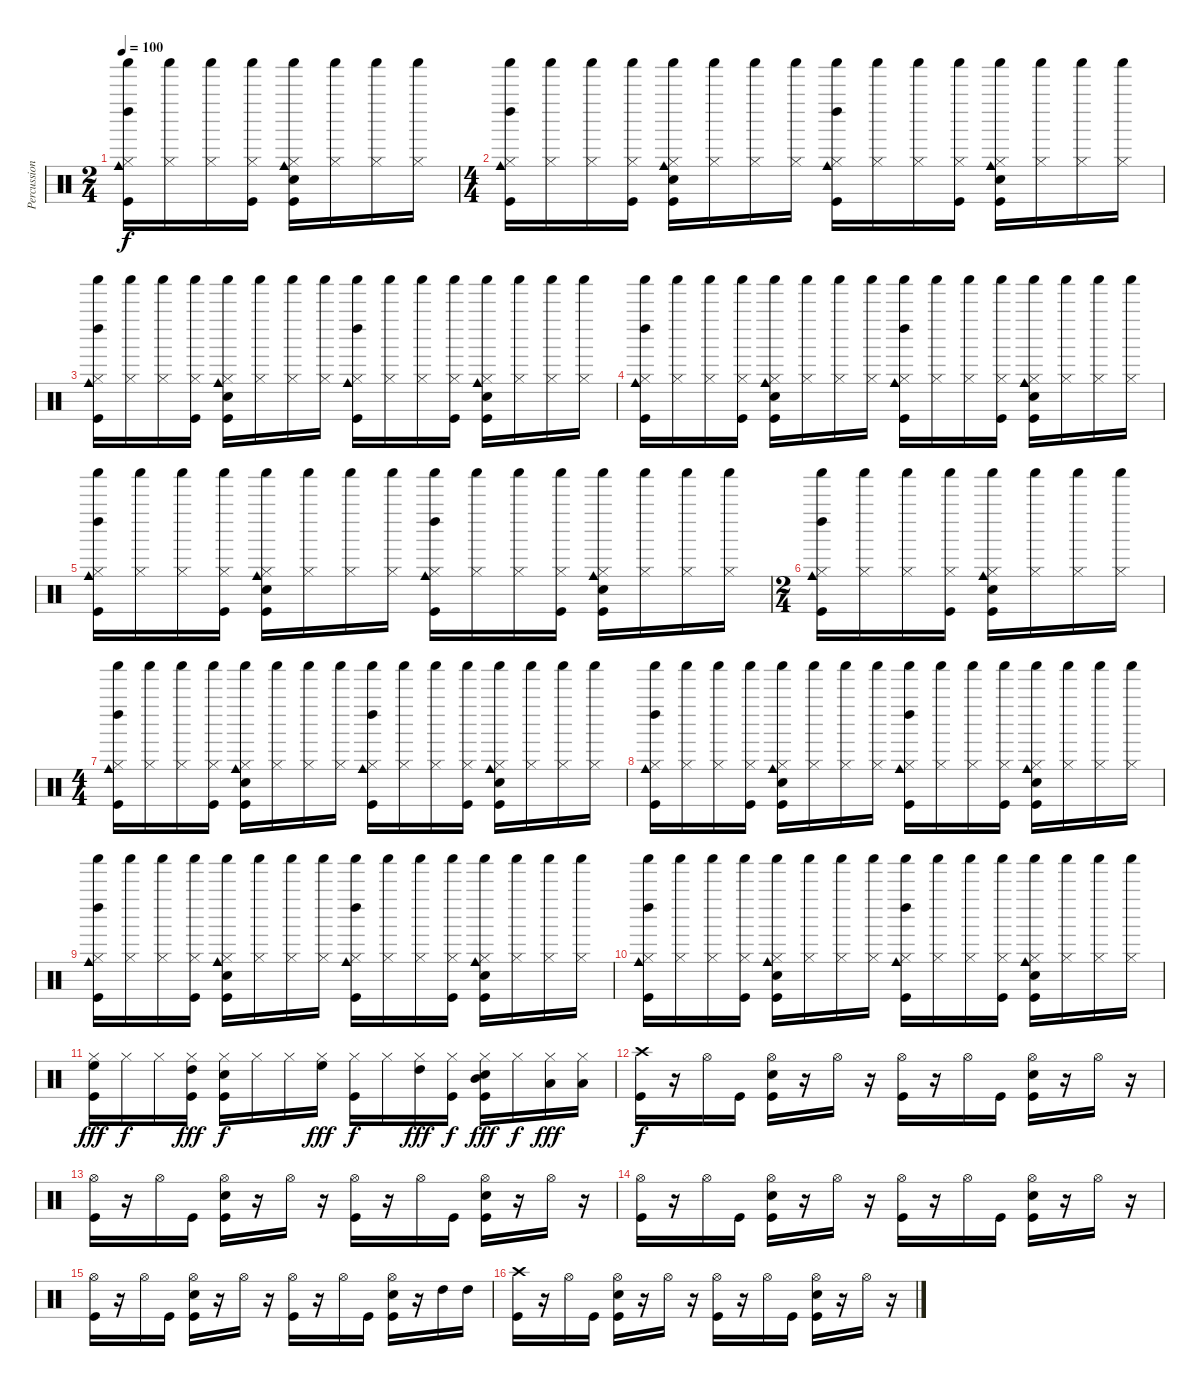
\track ("Percussions" "Percussion") {instrument percussion}
\staff {score}
\articulation defaults
\ts (2 4)
\tempo 100
\clef neutral
\ks c
("Hi-Hat (closed)" "Kick (hit)" "Left Maraca (hit)" "Cowbell medium (hit)" "Shaker (hit)").16{dy f} ("Hi-Hat (closed)" "Shaker (hit)").16 ("Hi-Hat (closed)" "Shaker (hit)").16 ("Hi-Hat (closed)" "Kick (hit)" "Shaker (hit)").16 ("Hi-Hat (closed)" "Electric Snare (hit)" "Kick (hit)" "Cowbell medium (hit)" "Shaker (hit)").16 ("Hi-Hat (closed)" "Shaker (hit)").16 ("Hi-Hat (closed)" "Shaker (hit)").16 ("Hi-Hat (closed)" "Shaker (hit)").16 |
\ts (4 4)
("Hi-Hat (closed)" "Kick (hit)" "Left Maraca (hit)" "Cowbell medium (hit)" "Shaker (hit)").16 ("Hi-Hat (closed)" "Shaker (hit)").16 ("Hi-Hat (closed)" "Shaker (hit)").16 ("Hi-Hat (closed)" "Kick (hit)" "Shaker (hit)").16 ("Hi-Hat (closed)" "Electric Snare (hit)" "Kick (hit)" "Cowbell medium (hit)" "Shaker (hit)").16 ("Hi-Hat (closed)" "Shaker (hit)").16 ("Hi-Hat (closed)" "Shaker (hit)").16 ("Hi-Hat (closed)" "Shaker (hit)").16 ("Hi-Hat (closed)" "Kick (hit)" "Left Maraca (hit)" "Cowbell medium (hit)" "Shaker (hit)").16 ("Hi-Hat (closed)" "Shaker (hit)").16 ("Hi-Hat (closed)" "Shaker (hit)").16 ("Hi-Hat (closed)" "Kick (hit)" "Shaker (hit)").16 ("Hi-Hat (closed)" "Electric Snare (hit)" "Kick (hit)" "Cowbell medium (hit)" "Shaker (hit)").16 ("Hi-Hat (closed)" "Shaker (hit)").16 ("Hi-Hat (closed)" "Shaker (hit)").16 ("Hi-Hat (closed)" "Shaker (hit)").16 |
("Hi-Hat (closed)" "Kick (hit)" "Left Maraca (hit)" "Cowbell medium (hit)" "Shaker (hit)").16 ("Hi-Hat (closed)" "Shaker (hit)").16 ("Hi-Hat (closed)" "Shaker (hit)").16 ("Hi-Hat (closed)" "Kick (hit)" "Shaker (hit)").16 ("Hi-Hat (closed)" "Electric Snare (hit)" "Kick (hit)" "Cowbell medium (hit)" "Shaker (hit)").16 ("Hi-Hat (closed)" "Shaker (hit)").16 ("Hi-Hat (closed)" "Shaker (hit)").16 ("Hi-Hat (closed)" "Shaker (hit)").16 ("Hi-Hat (closed)" "Kick (hit)" "Left Maraca (hit)" "Cowbell medium (hit)" "Shaker (hit)").16 ("Hi-Hat (closed)" "Shaker (hit)").16 ("Hi-Hat (closed)" "Shaker (hit)").16 ("Hi-Hat (closed)" "Kick (hit)" "Shaker (hit)").16 ("Hi-Hat (closed)" "Electric Snare (hit)" "Kick (hit)" "Cowbell medium (hit)" "Shaker (hit)").16 ("Hi-Hat (closed)" "Shaker (hit)").16 ("Hi-Hat (closed)" "Shaker (hit)").16 ("Hi-Hat (closed)" "Shaker (hit)").16 |
("Hi-Hat (closed)" "Kick (hit)" "Left Maraca (hit)" "Cowbell medium (hit)" "Shaker (hit)").16 ("Hi-Hat (closed)" "Shaker (hit)").16 ("Hi-Hat (closed)" "Shaker (hit)").16 ("Hi-Hat (closed)" "Kick (hit)" "Shaker (hit)").16 ("Hi-Hat (closed)" "Electric Snare (hit)" "Kick (hit)" "Cowbell medium (hit)" "Shaker (hit)").16 ("Hi-Hat (closed)" "Shaker (hit)").16 ("Hi-Hat (closed)" "Shaker (hit)").16 ("Hi-Hat (closed)" "Shaker (hit)").16 ("Hi-Hat (closed)" "Kick (hit)" "Left Maraca (hit)" "Cowbell medium (hit)" "Shaker (hit)").16 ("Hi-Hat (closed)" "Shaker (hit)").16 ("Hi-Hat (closed)" "Shaker (hit)").16 ("Hi-Hat (closed)" "Kick (hit)" "Shaker (hit)").16 ("Hi-Hat (closed)" "Electric Snare (hit)" "Kick (hit)" "Cowbell medium (hit)" "Shaker (hit)").16 ("Hi-Hat (closed)" "Shaker (hit)").16 ("Hi-Hat (closed)" "Shaker (hit)").16 ("Hi-Hat (closed)" "Shaker (hit)").16 |
("Hi-Hat (closed)" "Kick (hit)" "Left Maraca (hit)" "Cowbell medium (hit)" "Shaker (hit)").16 ("Hi-Hat (closed)" "Shaker (hit)").16 ("Hi-Hat (closed)" "Shaker (hit)").16 ("Hi-Hat (closed)" "Kick (hit)" "Shaker (hit)").16 ("Hi-Hat (closed)" "Electric Snare (hit)" "Kick (hit)" "Cowbell medium (hit)" "Shaker (hit)").16 ("Hi-Hat (closed)" "Shaker (hit)").16 ("Hi-Hat (closed)" "Shaker (hit)").16 ("Hi-Hat (closed)" "Shaker (hit)").16 ("Hi-Hat (closed)" "Kick (hit)" "Left Maraca (hit)" "Cowbell medium (hit)" "Shaker (hit)").16 ("Hi-Hat (closed)" "Shaker (hit)").16 ("Hi-Hat (closed)" "Shaker (hit)").16 ("Hi-Hat (closed)" "Kick (hit)" "Shaker (hit)").16 ("Hi-Hat (closed)" "Electric Snare (hit)" "Kick (hit)" "Cowbell medium (hit)" "Shaker (hit)").16 ("Hi-Hat (closed)" "Shaker (hit)").16 ("Hi-Hat (closed)" "Shaker (hit)").16 ("Hi-Hat (closed)" "Shaker (hit)").16 |
\ts (2 4)
("Hi-Hat (closed)" "Kick (hit)" "Left Maraca (hit)" "Cowbell medium (hit)" "Shaker (hit)").16 ("Hi-Hat (closed)" "Shaker (hit)").16 ("Hi-Hat (closed)" "Shaker (hit)").16 ("Hi-Hat (closed)" "Kick (hit)" "Shaker (hit)").16 ("Hi-Hat (closed)" "Electric Snare (hit)" "Kick (hit)" "Cowbell medium (hit)" "Shaker (hit)").16 ("Hi-Hat (closed)" "Shaker (hit)").16 ("Hi-Hat (closed)" "Shaker (hit)").16 ("Hi-Hat (closed)" "Shaker (hit)").16 |
\ts (4 4)
("Hi-Hat (closed)" "Kick (hit)" "Left Maraca (hit)" "Cowbell medium (hit)" "Shaker (hit)").16 ("Hi-Hat (closed)" "Shaker (hit)").16 ("Hi-Hat (closed)" "Shaker (hit)").16 ("Hi-Hat (closed)" "Kick (hit)" "Shaker (hit)").16 ("Hi-Hat (closed)" "Electric Snare (hit)" "Kick (hit)" "Cowbell medium (hit)" "Shaker (hit)").16 ("Hi-Hat (closed)" "Shaker (hit)").16 ("Hi-Hat (closed)" "Shaker (hit)").16 ("Hi-Hat (closed)" "Shaker (hit)").16 ("Hi-Hat (closed)" "Kick (hit)" "Left Maraca (hit)" "Cowbell medium (hit)" "Shaker (hit)").16 ("Hi-Hat (closed)" "Shaker (hit)").16 ("Hi-Hat (closed)" "Shaker (hit)").16 ("Hi-Hat (closed)" "Kick (hit)" "Shaker (hit)").16 ("Hi-Hat (closed)" "Electric Snare (hit)" "Kick (hit)" "Cowbell medium (hit)" "Shaker (hit)").16 ("Hi-Hat (closed)" "Shaker (hit)").16 ("Hi-Hat (closed)" "Shaker (hit)").16 ("Hi-Hat (closed)" "Shaker (hit)").16 |
("Hi-Hat (closed)" "Kick (hit)" "Left Maraca (hit)" "Cowbell medium (hit)" "Shaker (hit)").16 ("Hi-Hat (closed)" "Shaker (hit)").16 ("Hi-Hat (closed)" "Shaker (hit)").16 ("Hi-Hat (closed)" "Kick (hit)" "Shaker (hit)").16 ("Hi-Hat (closed)" "Electric Snare (hit)" "Kick (hit)" "Cowbell medium (hit)" "Shaker (hit)").16 ("Hi-Hat (closed)" "Shaker (hit)").16 ("Hi-Hat (closed)" "Shaker (hit)").16 ("Hi-Hat (closed)" "Shaker (hit)").16 ("Hi-Hat (closed)" "Kick (hit)" "Left Maraca (hit)" "Cowbell medium (hit)" "Shaker (hit)").16 ("Hi-Hat (closed)" "Shaker (hit)").16 ("Hi-Hat (closed)" "Shaker (hit)").16 ("Hi-Hat (closed)" "Kick (hit)" "Shaker (hit)").16 ("Hi-Hat (closed)" "Electric Snare (hit)" "Kick (hit)" "Cowbell medium (hit)" "Shaker (hit)").16 ("Hi-Hat (closed)" "Shaker (hit)").16 ("Hi-Hat (closed)" "Shaker (hit)").16 ("Hi-Hat (closed)" "Shaker (hit)").16 |
("Hi-Hat (closed)" "Kick (hit)" "Left Maraca (hit)" "Cowbell medium (hit)" "Shaker (hit)").16 ("Hi-Hat (closed)" "Shaker (hit)").16 ("Hi-Hat (closed)" "Shaker (hit)").16 ("Hi-Hat (closed)" "Kick (hit)" "Shaker (hit)").16 ("Hi-Hat (closed)" "Electric Snare (hit)" "Kick (hit)" "Cowbell medium (hit)" "Shaker (hit)").16 ("Hi-Hat (closed)" "Shaker (hit)").16 ("Hi-Hat (closed)" "Shaker (hit)").16 ("Hi-Hat (closed)" "Shaker (hit)").16 ("Hi-Hat (closed)" "Kick (hit)" "Left Maraca (hit)" "Cowbell medium (hit)" "Shaker (hit)").16 ("Hi-Hat (closed)" "Shaker (hit)").16 ("Hi-Hat (closed)" "Shaker (hit)").16 ("Hi-Hat (closed)" "Kick (hit)" "Shaker (hit)").16 ("Hi-Hat (closed)" "Electric Snare (hit)" "Kick (hit)" "Cowbell medium (hit)" "Shaker (hit)").16 ("Hi-Hat (closed)" "Shaker (hit)").16 ("Hi-Hat (closed)" "Shaker (hit)").16 ("Hi-Hat (closed)" "Shaker (hit)").16 |
("Hi-Hat (closed)" "Kick (hit)" "Left Maraca (hit)" "Cowbell medium (hit)" "Shaker (hit)").16 ("Hi-Hat (closed)" "Shaker (hit)").16 ("Hi-Hat (closed)" "Shaker (hit)").16 ("Hi-Hat (closed)" "Kick (hit)" "Shaker (hit)").16 ("Hi-Hat (closed)" "Electric Snare (hit)" "Kick (hit)" "Cowbell medium (hit)" "Shaker (hit)").16 ("Hi-Hat (closed)" "Shaker (hit)").16 ("Hi-Hat (closed)" "Shaker (hit)").16 ("Hi-Hat (closed)" "Shaker (hit)").16 ("Hi-Hat (closed)" "Kick (hit)" "Left Maraca (hit)" "Cowbell medium (hit)" "Shaker (hit)").16 ("Hi-Hat (closed)" "Shaker (hit)").16 ("Hi-Hat (closed)" "Shaker (hit)").16 ("Hi-Hat (closed)" "Kick (hit)" "Shaker (hit)").16 ("Hi-Hat (closed)" "Electric Snare (hit)" "Kick (hit)" "Cowbell medium (hit)" "Shaker (hit)").16 ("Hi-Hat (closed)" "Shaker (hit)").16 ("Hi-Hat (closed)" "Shaker (hit)").16 ("Hi-Hat (closed)" "Shaker (hit)").16 |
("Hi-Hat (closed)" "High Floor Tom (hit)" "Kick (hit)").16{dy fff} "Hi-Hat (closed)".16{dy f} "Hi-Hat (closed)".16 ("Hi-Hat (closed)" "High Tom (hit)" "Kick (hit)").16{dy fff} ("Hi-Hat (closed)" "Electric Snare (hit)" "Kick (hit)").16{dy f} "Hi-Hat (closed)".16 "Hi-Hat (closed)".16 ("Hi-Hat (closed)" "High Floor Tom (hit)").16{dy fff} ("Hi-Hat (closed)" "Kick (hit)").16{dy f} "Hi-Hat (closed)".16 ("Hi-Hat (closed)" "High Tom (hit)").16{dy fff} ("Hi-Hat (closed)" "Kick (hit)").16{dy f} ("Hi-Hat (closed)" "Electric Snare (hit)" "Kick (hit)" "Mid Tom (hit)").16{dy fff} "Hi-Hat (closed)".16{dy f} ("Hi-Hat (closed)" "Low Tom (hit)").16{dy fff} ("Hi-Hat (closed)" "Low Tom (hit)").16 |
("Crash high (hit)" "Kick (hit)").16{dy f} r.16 "Hi-Hat (open)".16 "Kick (hit)".16 ("Hi-Hat (open)" "Electric Snare (hit)" "Kick (hit)").16 r.16 "Hi-Hat (open)".16 r.16 ("Hi-Hat (open)" "Kick (hit)").16 r.16 "Hi-Hat (open)".16 "Kick (hit)".16 ("Hi-Hat (open)" "Electric Snare (hit)" "Kick (hit)").16 r.16 "Hi-Hat (open)".16 r.16 |
("Hi-Hat (open)" "Kick (hit)").16 r.16 "Hi-Hat (open)".16 "Kick (hit)".16 ("Hi-Hat (open)" "Electric Snare (hit)" "Kick (hit)").16 r.16 "Hi-Hat (open)".16 r.16 ("Hi-Hat (open)" "Kick (hit)").16 r.16 "Hi-Hat (open)".16 "Kick (hit)".16 ("Hi-Hat (open)" "Electric Snare (hit)" "Kick (hit)").16 r.16 "Hi-Hat (open)".16 r.16 |
("Hi-Hat (open)" "Kick (hit)").16 r.16 "Hi-Hat (open)".16 "Kick (hit)".16 ("Hi-Hat (open)" "Electric Snare (hit)" "Kick (hit)").16 r.16 "Hi-Hat (open)".16 r.16 ("Hi-Hat (open)" "Kick (hit)").16 r.16 "Hi-Hat (open)".16 "Kick (hit)".16 ("Hi-Hat (open)" "Electric Snare (hit)" "Kick (hit)").16 r.16 "Hi-Hat (open)".16 r.16 |
("Hi-Hat (open)" "Kick (hit)").16 r.16 "Hi-Hat (open)".16 "Kick (hit)".16 ("Hi-Hat (open)" "Electric Snare (hit)" "Kick (hit)").16 r.16 "Hi-Hat (open)".16 r.16 ("Hi-Hat (open)" "Kick (hit)").16 r.16 "Hi-Hat (open)".16 "Kick (hit)".16 ("Hi-Hat (open)" "Electric Snare (hit)" "Kick (hit)").16 r.16 "High Tom (hit)".16 "High Tom (hit)".16 |
("Crash high (hit)" "Kick (hit)").16 r.16 "Hi-Hat (open)".16 "Kick (hit)".16 ("Hi-Hat (open)" "Electric Snare (hit)" "Kick (hit)").16 r.16 "Hi-Hat (open)".16 r.16 ("Hi-Hat (open)" "Kick (hit)").16 r.16 "Hi-Hat (open)".16 "Kick (hit)".16 ("Hi-Hat (open)" "Electric Snare (hit)" "Kick (hit)").16 r.16 "Hi-Hat (open)".16 r.16
